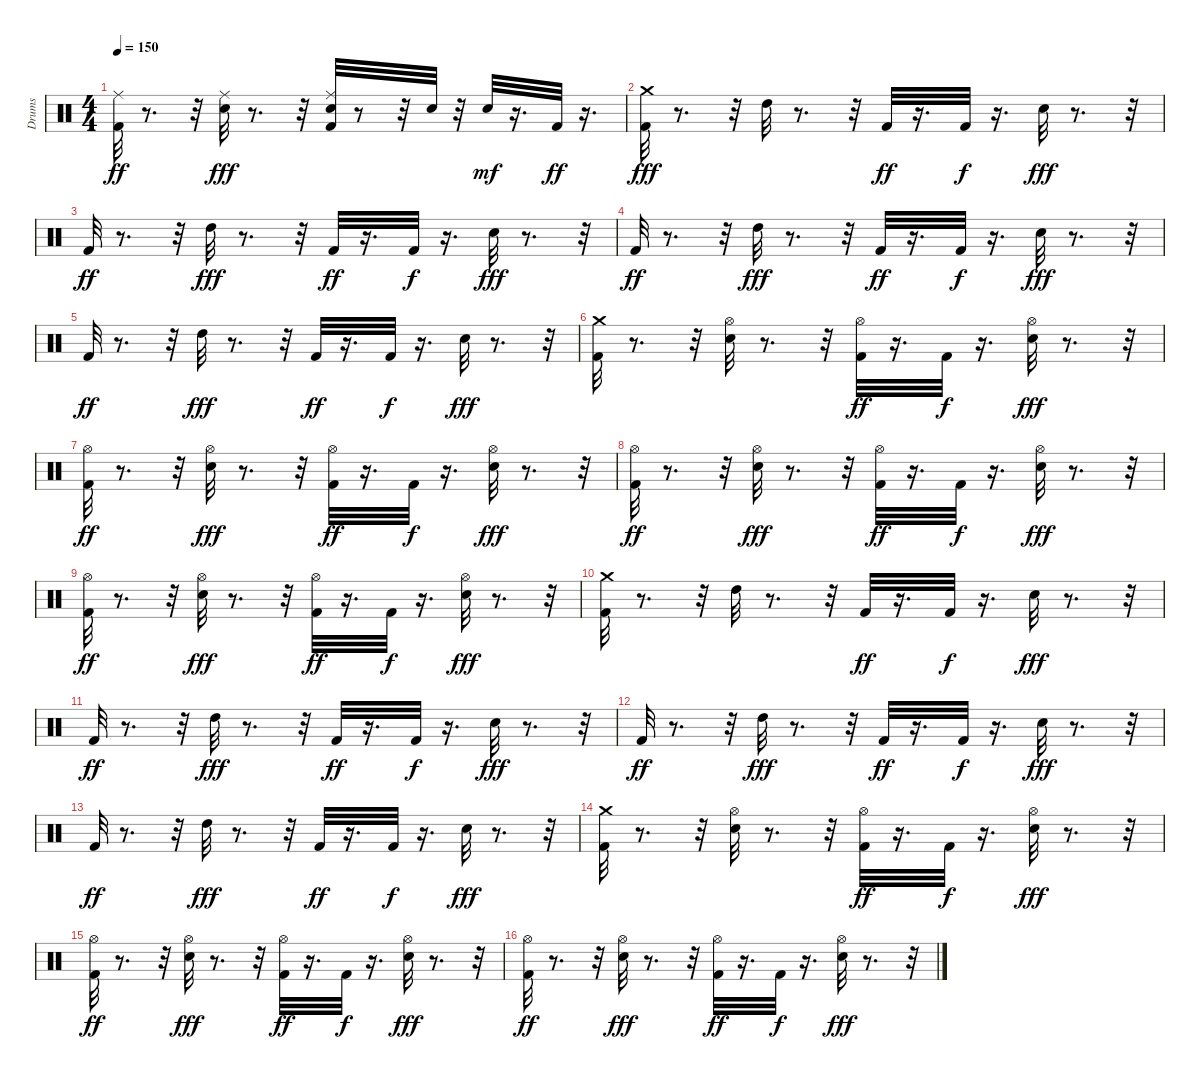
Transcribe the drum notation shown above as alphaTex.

\track ("Drums" "Drums") {instrument percussion}
\staff {score}
\articulation defaults
\ts (4 4)
\tempo 150
\clef neutral
\ks c
("Kick (hit) 2" "Ride (middle)").32{dy ff} r.8{d} r.32 ("Snare (hit) 2" "Ride (middle)").32{dy fff} r.8{d} r.32 ("Snare (hit) 2" "Kick (hit) 2" "Ride (middle)").32 r.8 r.32 "Snare (hit) 2".32 r.32 "Snare (hit) 2".32{dy mf} r.16{d} "Kick (hit) 2".32{dy ff} r.16{d} |
("Kick (hit) 2" "Crash medium (hit)").32{dy fff} r.8{d} r.32 "High Tom (hit)".32 r.8{d} r.32 "Kick (hit) 2".32{dy ff} r.16{d} "Kick (hit) 2".32{dy f} r.16{d} "Snare (hit) 2".32{dy fff} r.8{d} r.32 |
"Kick (hit) 2".32{dy ff} r.8{d} r.32 "High Tom (hit)".32{dy fff} r.8{d} r.32 "Kick (hit) 2".32{dy ff} r.16{d} "Kick (hit) 2".32{dy f} r.16{d} "Snare (hit) 2".32{dy fff} r.8{d} r.32 |
"Kick (hit) 2".32{dy ff} r.8{d} r.32 "High Tom (hit)".32{dy fff} r.8{d} r.32 "Kick (hit) 2".32{dy ff} r.16{d} "Kick (hit) 2".32{dy f} r.16{d} "Snare (hit) 2".32{dy fff} r.8{d} r.32 |
"Kick (hit) 2".32{dy ff} r.8{d} r.32 "High Tom (hit)".32{dy fff} r.8{d} r.32 "Kick (hit) 2".32{dy ff} r.16{d} "Kick (hit) 2".32{dy f} r.16{d} "Snare (hit) 2".32{dy fff} r.8{d} r.32 |
("Kick (hit) 2" "Crash medium (hit)").32 r.8{d} r.32 ("Snare (hit) 2" "Hi-Hat (open)").32 r.8{d} r.32 ("Kick (hit) 2" "Hi-Hat (open)").32{dy ff} r.16{d} "Kick (hit) 2".32{dy f} r.16{d} ("Snare (hit) 2" "Hi-Hat (open)").32{dy fff} r.8{d} r.32 |
("Kick (hit) 2" "Hi-Hat (open)").32{dy ff} r.8{d} r.32 ("Snare (hit) 2" "Hi-Hat (open)").32{dy fff} r.8{d} r.32 ("Kick (hit) 2" "Hi-Hat (open)").32{dy ff} r.16{d} "Kick (hit) 2".32{dy f} r.16{d} ("Snare (hit) 2" "Hi-Hat (open)").32{dy fff} r.8{d} r.32 |
("Kick (hit) 2" "Hi-Hat (open)").32{dy ff} r.8{d} r.32 ("Snare (hit) 2" "Hi-Hat (open)").32{dy fff} r.8{d} r.32 ("Kick (hit) 2" "Hi-Hat (open)").32{dy ff} r.16{d} "Kick (hit) 2".32{dy f} r.16{d} ("Snare (hit) 2" "Hi-Hat (open)").32{dy fff} r.8{d} r.32 |
("Kick (hit) 2" "Hi-Hat (open)").32{dy ff} r.8{d} r.32 ("Snare (hit) 2" "Hi-Hat (open)").32{dy fff} r.8{d} r.32 ("Kick (hit) 2" "Hi-Hat (open)").32{dy ff} r.16{d} "Kick (hit) 2".32{dy f} r.16{d} ("Snare (hit) 2" "Hi-Hat (open)").32{dy fff} r.8{d} r.32 |
("Kick (hit) 2" "Crash medium (hit)").32 r.8{d} r.32 "High Tom (hit)".32 r.8{d} r.32 "Kick (hit) 2".32{dy ff} r.16{d} "Kick (hit) 2".32{dy f} r.16{d} "Snare (hit) 2".32{dy fff} r.8{d} r.32 |
"Kick (hit) 2".32{dy ff} r.8{d} r.32 "High Tom (hit)".32{dy fff} r.8{d} r.32 "Kick (hit) 2".32{dy ff} r.16{d} "Kick (hit) 2".32{dy f} r.16{d} "Snare (hit) 2".32{dy fff} r.8{d} r.32 |
"Kick (hit) 2".32{dy ff} r.8{d} r.32 "High Tom (hit)".32{dy fff} r.8{d} r.32 "Kick (hit) 2".32{dy ff} r.16{d} "Kick (hit) 2".32{dy f} r.16{d} "Snare (hit) 2".32{dy fff} r.8{d} r.32 |
"Kick (hit) 2".32{dy ff} r.8{d} r.32 "High Tom (hit)".32{dy fff} r.8{d} r.32 "Kick (hit) 2".32{dy ff} r.16{d} "Kick (hit) 2".32{dy f} r.16{d} "Snare (hit) 2".32{dy fff} r.8{d} r.32 |
("Kick (hit) 2" "Crash medium (hit)").32 r.8{d} r.32 ("Snare (hit) 2" "Hi-Hat (open)").32 r.8{d} r.32 ("Kick (hit) 2" "Hi-Hat (open)").32{dy ff} r.16{d} "Kick (hit) 2".32{dy f} r.16{d} ("Snare (hit) 2" "Hi-Hat (open)").32{dy fff} r.8{d} r.32 |
("Kick (hit) 2" "Hi-Hat (open)").32{dy ff} r.8{d} r.32 ("Snare (hit) 2" "Hi-Hat (open)").32{dy fff} r.8{d} r.32 ("Kick (hit) 2" "Hi-Hat (open)").32{dy ff} r.16{d} "Kick (hit) 2".32{dy f} r.16{d} ("Snare (hit) 2" "Hi-Hat (open)").32{dy fff} r.8{d} r.32 |
("Kick (hit) 2" "Hi-Hat (open)").32{dy ff} r.8{d} r.32 ("Snare (hit) 2" "Hi-Hat (open)").32{dy fff} r.8{d} r.32 ("Kick (hit) 2" "Hi-Hat (open)").32{dy ff} r.16{d} "Kick (hit) 2".32{dy f} r.16{d} ("Snare (hit) 2" "Hi-Hat (open)").32{dy fff} r.8{d} r.32
